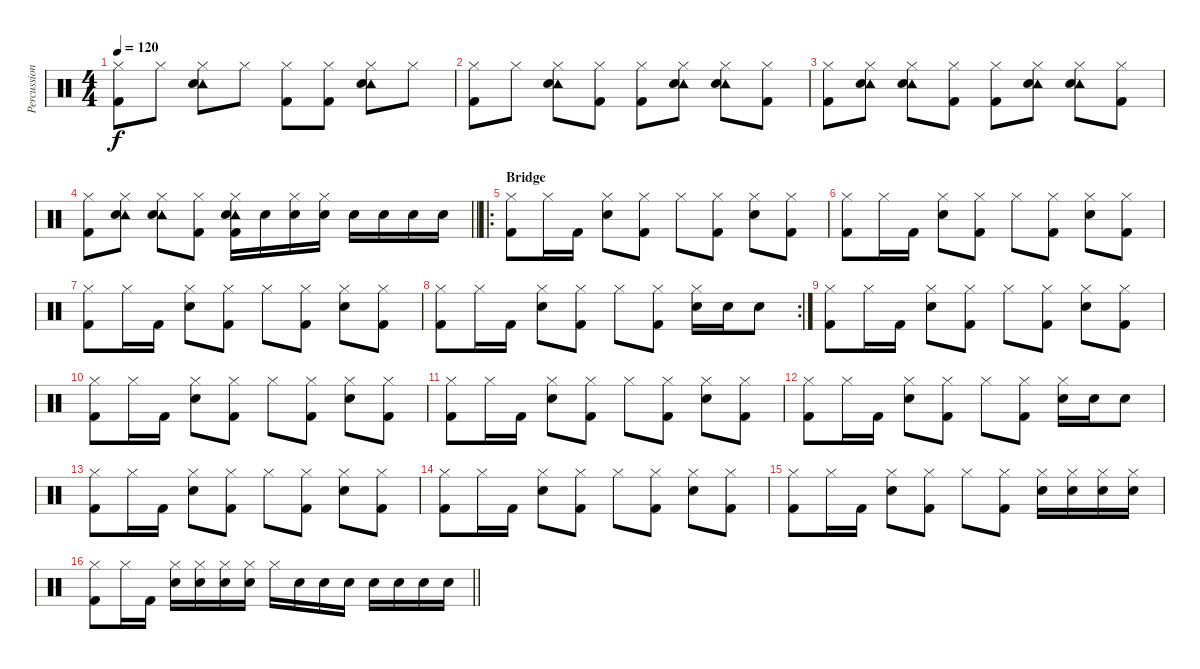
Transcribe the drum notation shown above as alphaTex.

\track ("Percussion" "Percussion") {instrument percussion}
\staff {score}
\articulation defaults
\ts (4 4)
\tempo 120
\clef neutral
\ks c
("Hi-Hat (closed)" "Kick (hit) 2").8{dy f} "Hi-Hat (closed)".8 ("Hi-Hat (closed)" "Tambourine (hit)" "Snare (hit) 2").8 "Hi-Hat (closed)".8 ("Hi-Hat (closed)" "Kick (hit) 2").8 ("Hi-Hat (closed)" "Kick (hit) 2").8 ("Hi-Hat (closed)" "Tambourine (hit)" "Snare (hit) 2").8 "Hi-Hat (closed)".8 |
("Hi-Hat (closed)" "Kick (hit) 2").8 "Hi-Hat (closed)".8 ("Hi-Hat (closed)" "Tambourine (hit)" "Snare (hit) 2").8 ("Hi-Hat (closed)" "Kick (hit) 2").8 ("Hi-Hat (closed)" "Kick (hit) 2").8 ("Hi-Hat (closed)" "Tambourine (hit)" "Snare (hit) 2").8 ("Hi-Hat (closed)" "Tambourine (hit)" "Snare (hit) 2").8 ("Hi-Hat (closed)" "Kick (hit) 2").8 |
("Hi-Hat (closed)" "Kick (hit) 2").8 ("Hi-Hat (closed)" "Tambourine (hit)" "Snare (hit) 2").8 ("Hi-Hat (closed)" "Tambourine (hit)" "Snare (hit) 2").8 ("Hi-Hat (closed)" "Kick (hit) 2").8 ("Hi-Hat (closed)" "Kick (hit) 2").8 ("Hi-Hat (closed)" "Tambourine (hit)" "Snare (hit) 2").8 ("Hi-Hat (closed)" "Tambourine (hit)" "Snare (hit) 2").8 ("Hi-Hat (closed)" "Kick (hit) 2").8 |
\barLineRight lightlight
("Hi-Hat (closed)" "Kick (hit) 2").8 ("Hi-Hat (closed)" "Tambourine (hit)" "Snare (hit) 2").8 ("Hi-Hat (closed)" "Tambourine (hit)" "Snare (hit) 2").8 ("Hi-Hat (closed)" "Kick (hit) 2").8 ("Hi-Hat (closed)" "Tambourine (hit)" "Snare (hit) 2" "Kick (hit) 2").16 "Snare (hit) 2".16 ("Hi-Hat (closed)" "Snare (hit) 2").16 ("Hi-Hat (closed)" "Snare (hit) 2").16 "Snare (hit) 2".16 "Snare (hit) 2".16 "Snare (hit) 2".16 "Snare (hit) 2".16 |
\ro
\section ("" "Bridge")
("Hi-Hat (closed)" "Kick (hit) 2").8 "Hi-Hat (closed)".16 "Kick (hit) 2".16 ("Hi-Hat (closed)" "Snare (hit) 2").8 ("Hi-Hat (closed)" "Kick (hit) 2").8 "Hi-Hat (closed)".8 ("Hi-Hat (closed)" "Kick (hit) 2").8 ("Hi-Hat (closed)" "Snare (hit) 2").8 ("Hi-Hat (closed)" "Kick (hit) 2").8 |
("Hi-Hat (closed)" "Kick (hit) 2").8 "Hi-Hat (closed)".16 "Kick (hit) 2".16 ("Hi-Hat (closed)" "Snare (hit) 2").8 ("Hi-Hat (closed)" "Kick (hit) 2").8 "Hi-Hat (closed)".8 ("Hi-Hat (closed)" "Kick (hit) 2").8 ("Hi-Hat (closed)" "Snare (hit) 2").8 ("Hi-Hat (closed)" "Kick (hit) 2").8 |
("Hi-Hat (closed)" "Kick (hit) 2").8 "Hi-Hat (closed)".16 "Kick (hit) 2".16 ("Hi-Hat (closed)" "Snare (hit) 2").8 ("Hi-Hat (closed)" "Kick (hit) 2").8 "Hi-Hat (closed)".8 ("Hi-Hat (closed)" "Kick (hit) 2").8 ("Hi-Hat (closed)" "Snare (hit) 2").8 ("Hi-Hat (closed)" "Kick (hit) 2").8 |
\rc 2
("Hi-Hat (closed)" "Kick (hit) 2").8 "Hi-Hat (closed)".16 "Kick (hit) 2".16 ("Hi-Hat (closed)" "Snare (hit) 2").8 ("Hi-Hat (closed)" "Kick (hit) 2").8 "Hi-Hat (closed)".8 ("Hi-Hat (closed)" "Kick (hit) 2").8 ("Hi-Hat (closed)" "Snare (hit) 2").16 "Snare (hit) 2".16 "Snare (hit) 2".8 |
("Hi-Hat (closed)" "Kick (hit) 2").8 "Hi-Hat (closed)".16 "Kick (hit) 2".16 ("Hi-Hat (closed)" "Snare (hit) 2").8 ("Hi-Hat (closed)" "Kick (hit) 2").8 "Hi-Hat (closed)".8 ("Hi-Hat (closed)" "Kick (hit) 2").8 ("Hi-Hat (closed)" "Snare (hit) 2").8 ("Hi-Hat (closed)" "Kick (hit) 2").8 |
("Hi-Hat (closed)" "Kick (hit) 2").8 "Hi-Hat (closed)".16 "Kick (hit) 2".16 ("Hi-Hat (closed)" "Snare (hit) 2").8 ("Hi-Hat (closed)" "Kick (hit) 2").8 "Hi-Hat (closed)".8 ("Hi-Hat (closed)" "Kick (hit) 2").8 ("Hi-Hat (closed)" "Snare (hit) 2").8 ("Hi-Hat (closed)" "Kick (hit) 2").8 |
("Hi-Hat (closed)" "Kick (hit) 2").8 "Hi-Hat (closed)".16 "Kick (hit) 2".16 ("Hi-Hat (closed)" "Snare (hit) 2").8 ("Hi-Hat (closed)" "Kick (hit) 2").8 "Hi-Hat (closed)".8 ("Hi-Hat (closed)" "Kick (hit) 2").8 ("Hi-Hat (closed)" "Snare (hit) 2").8 ("Hi-Hat (closed)" "Kick (hit) 2").8 |
("Hi-Hat (closed)" "Kick (hit) 2").8 "Hi-Hat (closed)".16 "Kick (hit) 2".16 ("Hi-Hat (closed)" "Snare (hit) 2").8 ("Hi-Hat (closed)" "Kick (hit) 2").8 "Hi-Hat (closed)".8 ("Hi-Hat (closed)" "Kick (hit) 2").8 ("Hi-Hat (closed)" "Snare (hit) 2").16 "Snare (hit) 2".16 "Snare (hit) 2".8 |
("Hi-Hat (closed)" "Kick (hit) 2").8 "Hi-Hat (closed)".16 "Kick (hit) 2".16 ("Hi-Hat (closed)" "Snare (hit) 2").8 ("Hi-Hat (closed)" "Kick (hit) 2").8 "Hi-Hat (closed)".8 ("Hi-Hat (closed)" "Kick (hit) 2").8 ("Hi-Hat (closed)" "Snare (hit) 2").8 ("Hi-Hat (closed)" "Kick (hit) 2").8 |
("Hi-Hat (closed)" "Kick (hit) 2").8 "Hi-Hat (closed)".16 "Kick (hit) 2".16 ("Hi-Hat (closed)" "Snare (hit) 2").8 ("Hi-Hat (closed)" "Kick (hit) 2").8 "Hi-Hat (closed)".8 ("Hi-Hat (closed)" "Kick (hit) 2").8 ("Hi-Hat (closed)" "Snare (hit) 2").8 ("Hi-Hat (closed)" "Kick (hit) 2").8 |
("Hi-Hat (closed)" "Kick (hit) 2").8 "Hi-Hat (closed)".16 "Kick (hit) 2".16 ("Hi-Hat (closed)" "Snare (hit) 2").8 ("Hi-Hat (closed)" "Kick (hit) 2").8 "Hi-Hat (closed)".8 ("Hi-Hat (closed)" "Kick (hit) 2").8 ("Hi-Hat (closed)" "Snare (hit) 2").16 ("Hi-Hat (closed)" "Snare (hit) 2").16 ("Hi-Hat (closed)" "Snare (hit) 2").16 ("Hi-Hat (closed)" "Snare (hit) 2").16 |
\barLineRight lightlight
("Hi-Hat (closed)" "Kick (hit) 2").8 "Hi-Hat (closed)".16 "Kick (hit) 2".16 ("Hi-Hat (closed)" "Snare (hit) 2").16 ("Hi-Hat (closed)" "Snare (hit) 2").16 ("Hi-Hat (closed)" "Snare (hit) 2").16 ("Hi-Hat (closed)" "Snare (hit) 2").16 "Hi-Hat (closed)".16 "Snare (hit) 2".16 "Snare (hit) 2".16 "Snare (hit) 2".16 "Snare (hit) 2".16 "Snare (hit) 2".16 "Snare (hit) 2".16 "Snare (hit) 2".16
